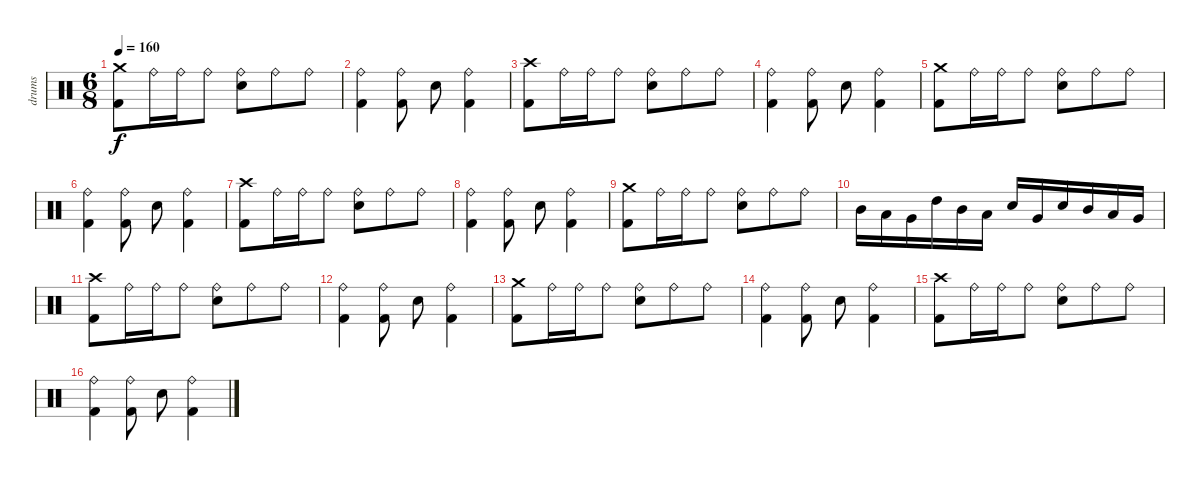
\track ("drums" "drums") {instrument percussion}
\staff {score}
\articulation defaults
\ts (6 8)
\tempo 160
\clef neutral
\ks c
("Kick (hit) 2" "Crash medium (hit)").8{dy f} "Ride (bell)".16 "Ride (bell)".16 "Ride (bell)".8 ("Electric Snare (hit)" "Ride (bell)").8 "Ride (bell)".8 "Ride (bell)".8 |
("Kick (hit) 2" "Ride (bell)").4 ("Kick (hit) 2" "Ride (bell)").8 "Electric Snare (hit)".8 ("Kick (hit) 2" "Ride (bell)").4 |
("Kick (hit) 2" "Crash high (hit)").8 "Ride (bell)".16 "Ride (bell)".16 "Ride (bell)".8 ("Electric Snare (hit)" "Ride (bell)").8 "Ride (bell)".8 "Ride (bell)".8 |
("Kick (hit) 2" "Ride (bell)").4 ("Kick (hit) 2" "Ride (bell)").8 "Electric Snare (hit)".8 ("Kick (hit) 2" "Ride (bell)").4 |
("Kick (hit) 2" "Crash medium (hit)").8 "Ride (bell)".16 "Ride (bell)".16 "Ride (bell)".8 ("Electric Snare (hit)" "Ride (bell)").8 "Ride (bell)".8 "Ride (bell)".8 |
("Kick (hit) 2" "Ride (bell)").4 ("Kick (hit) 2" "Ride (bell)").8 "Electric Snare (hit)".8 ("Kick (hit) 2" "Ride (bell)").4 |
("Kick (hit) 2" "Crash high (hit)").8 "Ride (bell)".16 "Ride (bell)".16 "Ride (bell)".8 ("Electric Snare (hit)" "Ride (bell)").8 "Ride (bell)".8 "Ride (bell)".8 |
("Kick (hit) 2" "Ride (bell)").4 ("Kick (hit) 2" "Ride (bell)").8 "Electric Snare (hit)".8 ("Kick (hit) 2" "Ride (bell)").4 |
("Kick (hit) 2" "Crash medium (hit)").8 "Ride (bell)".16 "Ride (bell)".16 "Ride (bell)".8 ("Electric Snare (hit)" "Ride (bell)").8 "Ride (bell)".8 "Ride (bell)".8 |
"Mid Tom (hit)".16 "Low Tom (hit)".16 "Very Low Tom (hit)".16 "High Tom (hit)".16 "Mid Tom (hit)".16 "Low Tom (hit)".16 "Electric Snare (hit)".16 "Very Low Tom (hit)".16 "Electric Snare (hit)".16 "Mid Tom (hit)".16 "Low Tom (hit)".16 "Very Low Tom (hit)".16 |
("Kick (hit) 2" "Crash high (hit)").8 "Ride (bell)".16 "Ride (bell)".16 "Ride (bell)".8 ("Ride (bell)" "Electric Snare (hit)").8 "Ride (bell)".8 "Ride (bell)".8 |
("Ride (bell)" "Kick (hit) 2").4 ("Kick (hit) 2" "Ride (bell)").8 "Electric Snare (hit)".8 ("Kick (hit) 2" "Ride (bell)").4 |
("Kick (hit) 2" "Crash medium (hit)").8 "Ride (bell)".16 "Ride (bell)".16 "Ride (bell)".8 ("Electric Snare (hit)" "Ride (bell)").8 "Ride (bell)".8 "Ride (bell)".8 |
("Kick (hit) 2" "Ride (bell)").4 ("Kick (hit) 2" "Ride (bell)").8 "Electric Snare (hit)".8 ("Kick (hit) 2" "Ride (bell)").4 |
("Kick (hit) 2" "Crash high (hit)").8 "Ride (bell)".16 "Ride (bell)".16 "Ride (bell)".8 ("Electric Snare (hit)" "Ride (bell)").8 "Ride (bell)".8 "Ride (bell)".8 |
("Kick (hit) 2" "Ride (bell)").4 ("Kick (hit) 2" "Ride (bell)").8 "Electric Snare (hit)".8 ("Kick (hit) 2" "Ride (bell)").4
